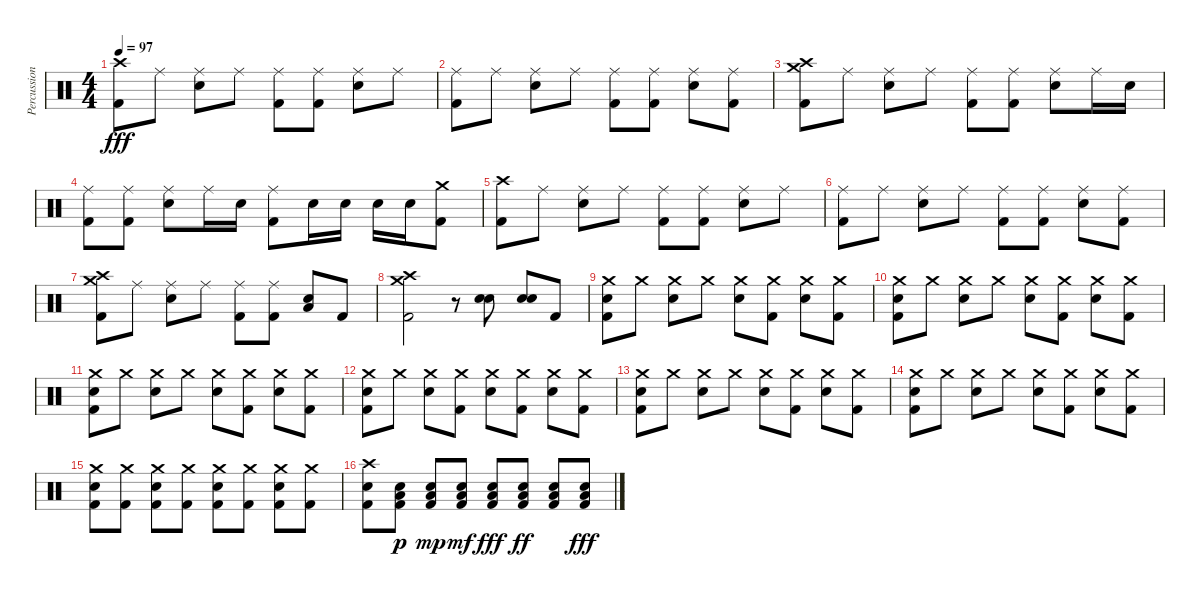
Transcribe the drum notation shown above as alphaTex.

\track ("Percussion" "Percussion") {instrument percussion}
\staff {score}
\articulation defaults
\ts (4 4)
\tempo 97
\clef neutral
\ks c
("Crash high (hit)" "Kick (hit) 2").8{dy fff} "Ride (middle)".8 ("Ride (middle)" "Electric Snare (hit)").8 "Ride (middle)".8 ("Ride (middle)" "Kick (hit) 2").8 ("Ride (middle)" "Kick (hit) 2").8 ("Ride (middle)" "Electric Snare (hit)").8 "Ride (middle)".8 |
("Ride (middle)" "Kick (hit) 2").8 "Ride (middle)".8 ("Ride (middle)" "Electric Snare (hit)").8 "Ride (middle)".8 ("Ride (middle)" "Kick (hit) 2").8 ("Ride (middle)" "Kick (hit) 2").8 ("Ride (middle)" "Electric Snare (hit)").8 ("Ride (middle)" "Kick (hit) 2").8 |
("Crash high (hit)" "Crash medium (hit)" "Kick (hit) 2").8 "Ride (middle)".8 ("Ride (middle)" "Electric Snare (hit)").8 "Ride (middle)".8 ("Ride (middle)" "Kick (hit) 2").8 ("Ride (middle)" "Kick (hit) 2").8 ("Ride (middle)" "Electric Snare (hit)").8 "Ride (middle)".16 "Electric Snare (hit)".16 |
("Ride (middle)" "Kick (hit) 2").8 ("Ride (middle)" "Kick (hit) 2").8 ("Ride (middle)" "Electric Snare (hit)").8 "Ride (middle)".16 "Electric Snare (hit)".16 ("Ride (middle)" "Kick (hit) 2").8 "Electric Snare (hit)".16 "Electric Snare (hit)".16 "Electric Snare (hit)".16 "Electric Snare (hit)".16 ("Crash medium (hit)" "Kick (hit) 2").8 |
("Crash high (hit)" "Kick (hit) 2").8 "Ride (middle)".8 ("Ride (middle)" "Electric Snare (hit)").8 "Ride (middle)".8 ("Ride (middle)" "Kick (hit) 2").8 ("Ride (middle)" "Kick (hit) 2").8 ("Ride (middle)" "Electric Snare (hit)").8 "Ride (middle)".8 |
("Ride (middle)" "Kick (hit) 2").8 "Ride (middle)".8 ("Ride (middle)" "Electric Snare (hit)").8 "Ride (middle)".8 ("Ride (middle)" "Kick (hit) 2").8 ("Ride (middle)" "Kick (hit) 2").8 ("Ride (middle)" "Electric Snare (hit)").8 ("Ride (middle)" "Kick (hit) 2").8 |
("Crash high (hit)" "Crash medium (hit)" "Kick (hit) 2").8 "Ride (middle)".8 ("Ride (middle)" "Electric Snare (hit)").8 "Ride (middle)".8 ("Ride (middle)" "Kick (hit) 2").8 ("Ride (middle)" "Kick (hit) 2").8 ("Electric Snare (hit)" "Low Floor Tom (hit)").8 "Kick (hit) 2".8 |
("Crash high (hit)" "Crash medium (hit)" "Kick (hit) 2").2 r.8 ("Electric Snare (hit)" "Electric Snare (hit)").8{bd 480} ("Electric Snare (hit)" "Electric Snare (hit)").8{bd 480} "Kick (hit) 2".8 |
("Crash medium (hit)" "Kick (hit) 2" "Electric Snare (hit)").8 "Crash medium (hit)".8 ("Crash medium (hit)" "Electric Snare (hit)").8 "Crash medium (hit)".8 ("Crash medium (hit)" "Electric Snare (hit)").8 ("Crash medium (hit)" "Kick (hit) 2").8 ("Crash medium (hit)" "Electric Snare (hit)").8 ("Crash medium (hit)" "Kick (hit) 2").8 |
("Crash medium (hit)" "Kick (hit) 2" "Electric Snare (hit)").8 "Crash medium (hit)".8 ("Crash medium (hit)" "Electric Snare (hit)").8 "Crash medium (hit)".8 ("Crash medium (hit)" "Electric Snare (hit)").8 ("Crash medium (hit)" "Kick (hit) 2").8 ("Crash medium (hit)" "Electric Snare (hit)").8 ("Crash medium (hit)" "Kick (hit) 2").8 |
("Crash medium (hit)" "Kick (hit) 2" "Electric Snare (hit)").8 "Crash medium (hit)".8 ("Crash medium (hit)" "Electric Snare (hit)").8 "Crash medium (hit)".8 ("Crash medium (hit)" "Electric Snare (hit)").8 ("Crash medium (hit)" "Kick (hit) 2").8 ("Crash medium (hit)" "Electric Snare (hit)").8 ("Crash medium (hit)" "Kick (hit) 2").8 |
("Crash medium (hit)" "Kick (hit) 2" "Electric Snare (hit)").8 "Crash medium (hit)".8 ("Crash medium (hit)" "Electric Snare (hit)").8 ("Crash medium (hit)" "Kick (hit) 2").8 ("Crash medium (hit)" "Electric Snare (hit)").8 ("Crash medium (hit)" "Kick (hit) 2").8 ("Crash medium (hit)" "Electric Snare (hit)").8 ("Crash medium (hit)" "Kick (hit) 2").8 |
("Crash medium (hit)" "Kick (hit) 2" "Electric Snare (hit)").8 "Crash medium (hit)".8 ("Crash medium (hit)" "Electric Snare (hit)").8 "Crash medium (hit)".8 ("Crash medium (hit)" "Electric Snare (hit)").8 ("Crash medium (hit)" "Kick (hit) 2").8 ("Crash medium (hit)" "Electric Snare (hit)").8 ("Crash medium (hit)" "Kick (hit) 2").8 |
("Crash medium (hit)" "Kick (hit) 2" "Electric Snare (hit)").8 "Crash medium (hit)".8 ("Crash medium (hit)" "Electric Snare (hit)").8 "Crash medium (hit)".8 ("Crash medium (hit)" "Electric Snare (hit)").8 ("Crash medium (hit)" "Kick (hit) 2").8 ("Crash medium (hit)" "Electric Snare (hit)").8 ("Crash medium (hit)" "Kick (hit) 2").8 |
("Crash medium (hit)" "Kick (hit) 2" "Electric Snare (hit)").8 ("Crash medium (hit)" "Kick (hit) 2").8 ("Crash medium (hit)" "Kick (hit) 2" "Electric Snare (hit)").8 ("Crash medium (hit)" "Kick (hit) 2").8 ("Crash medium (hit)" "Kick (hit) 2" "Electric Snare (hit)").8 ("Crash medium (hit)" "Kick (hit) 2").8 ("Crash medium (hit)" "Kick (hit) 2" "Electric Snare (hit)").8 ("Crash medium (hit)" "Kick (hit) 2").8 |
("Crash high (hit)" "Kick (hit) 2" "Electric Snare (hit)").8 ("Kick (hit) 2" "Electric Snare (hit)" "Low Floor Tom (hit)").8{dy p} ("Kick (hit) 2" "Electric Snare (hit)" "Low Floor Tom (hit)").8{dy mp} ("Kick (hit) 2" "Electric Snare (hit)" "Low Floor Tom (hit)").8{dy mf} ("Kick (hit) 2" "Electric Snare (hit)" "Low Floor Tom (hit)").8{dy fff} ("Kick (hit) 2" "Electric Snare (hit)" "Low Floor Tom (hit)").8{dy ff} ("Kick (hit) 2" "Electric Snare (hit)" "Low Floor Tom (hit)").8 ("Kick (hit) 2" "Electric Snare (hit)" "Low Floor Tom (hit)").8{dy fff}
